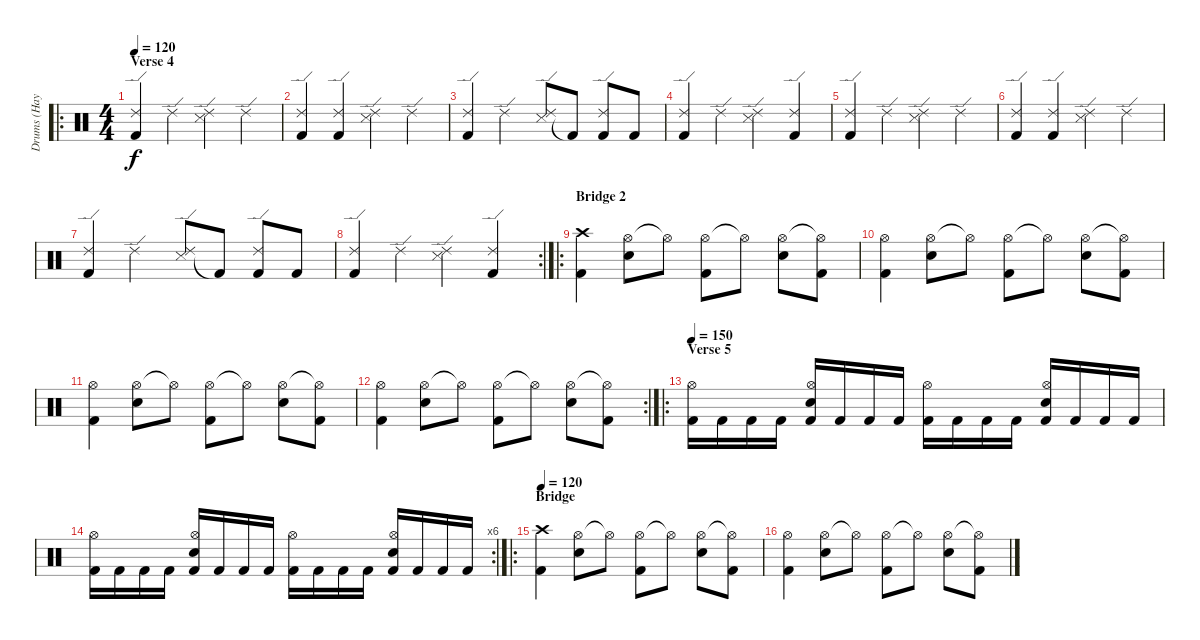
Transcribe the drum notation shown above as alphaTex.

\track ("Drums (Hayden)" "Drums (Hay") {instrument percussion}
\staff {score}
\articulation defaults
\ro
\ts (4 4)
\section ("" "Verse 4")
\tempo 120
\clef neutral
\ks c
("Ride (edge) 2" "Kick (hit) 2").4{dy f} "Ride (edge) 2".4 ("Ride (edge) 2" "Snare (side stick) 3").4 "Ride (edge) 2".4 |
("Ride (edge) 2" "Kick (hit) 2").4 ("Ride (edge) 2" "Kick (hit) 2").4 ("Ride (edge) 2" "Snare (side stick) 3").4 "Ride (edge) 2".4 |
("Ride (edge) 2" "Kick (hit) 2").4 "Ride (edge) 2".4 ("Ride (edge) 2" "Snare (side stick) 3").8 "Kick (hit) 2"{t}.8 ("Ride (edge) 2" "Kick (hit) 2").8 "Kick (hit) 2".8 |
("Ride (edge) 2" "Kick (hit) 2").4 "Ride (edge) 2".4 ("Ride (edge) 2" "Snare (side stick) 3").4 ("Ride (edge) 2" "Kick (hit) 2").4 |
("Ride (edge) 2" "Kick (hit) 2").4 "Ride (edge) 2".4 ("Ride (edge) 2" "Snare (side stick) 3").4 "Ride (edge) 2".4 |
("Ride (edge) 2" "Kick (hit) 2").4 ("Ride (edge) 2" "Kick (hit) 2").4 ("Ride (edge) 2" "Snare (side stick) 3").4 "Ride (edge) 2".4 |
("Ride (edge) 2" "Kick (hit) 2").4 "Ride (edge) 2".4 ("Ride (edge) 2" "Snare (side stick) 3").8 "Kick (hit) 2"{t}.8 ("Ride (edge) 2" "Kick (hit) 2").8 "Kick (hit) 2".8 |
\rc 2
("Ride (edge) 2" "Kick (hit) 2").4 "Ride (edge) 2".4 ("Ride (edge) 2" "Snare (side stick) 3").4 ("Ride (edge) 2" "Kick (hit) 2").4 |
\ro
\section ("" "Bridge 2")
("Crash high (hit)" "Kick (hit) 2").4 ("Hi-Hat (open)" "Electric Snare (hit)").8 "Hi-Hat (open)"{t}.8 ("Hi-Hat (open)" "Kick (hit) 2").8 "Hi-Hat (open)"{t}.8 ("Hi-Hat (open)" "Electric Snare (hit)").8 ("Hi-Hat (open)"{t} "Kick (hit) 2").8 |
("Hi-Hat (open)" "Kick (hit) 2").4 ("Hi-Hat (open)" "Electric Snare (hit)").8 "Hi-Hat (open)"{t}.8 ("Hi-Hat (open)" "Kick (hit) 2").8 "Hi-Hat (open)"{t}.8 ("Hi-Hat (open)" "Electric Snare (hit)").8 ("Hi-Hat (open)"{t} "Kick (hit) 2").8 |
("Hi-Hat (open)" "Kick (hit) 2").4 ("Hi-Hat (open)" "Electric Snare (hit)").8 "Hi-Hat (open)"{t}.8 ("Hi-Hat (open)" "Kick (hit) 2").8 "Hi-Hat (open)"{t}.8 ("Hi-Hat (open)" "Electric Snare (hit)").8 ("Hi-Hat (open)"{t} "Kick (hit) 2").8 |
\rc 2
("Hi-Hat (open)" "Kick (hit) 2").4 ("Hi-Hat (open)" "Electric Snare (hit)").8 "Hi-Hat (open)"{t}.8 ("Hi-Hat (open)" "Kick (hit) 2").8 "Hi-Hat (open)"{t}.8 ("Hi-Hat (open)" "Electric Snare (hit)").8 ("Hi-Hat (open)"{t} "Kick (hit) 2").8 |
\ro
\section ("" "Verse 5")
\tempo 150
("Kick (hit) 2" "Hi-Hat (open)").16 "Kick (hit) 2".16 "Kick (hit) 2".16 "Kick (hit) 2".16 ("Kick (hit) 2" "Hi-Hat (open)" "Electric Snare (hit)").16 "Kick (hit) 2".16 "Kick (hit) 2".16 "Kick (hit) 2".16 ("Kick (hit) 2" "Hi-Hat (open)").16 "Kick (hit) 2".16 "Kick (hit) 2".16 "Kick (hit) 2".16 ("Kick (hit) 2" "Hi-Hat (open)" "Electric Snare (hit)").16 "Kick (hit) 2".16 "Kick (hit) 2".16 "Kick (hit) 2".16 |
\rc 6
("Kick (hit) 2" "Hi-Hat (open)").16 "Kick (hit) 2".16 "Kick (hit) 2".16 "Kick (hit) 2".16 ("Kick (hit) 2" "Hi-Hat (open)" "Electric Snare (hit)").16 "Kick (hit) 2".16 "Kick (hit) 2".16 "Kick (hit) 2".16 ("Kick (hit) 2" "Hi-Hat (open)").16 "Kick (hit) 2".16 "Kick (hit) 2".16 "Kick (hit) 2".16 ("Kick (hit) 2" "Hi-Hat (open)" "Electric Snare (hit)").16 "Kick (hit) 2".16 "Kick (hit) 2".16 "Kick (hit) 2".16 |
\ro
\section ("" "Bridge")
\tempo 120
("Crash high (hit)" "Kick (hit) 2").4 ("Hi-Hat (open)" "Electric Snare (hit)").8 "Hi-Hat (open)"{t}.8 ("Hi-Hat (open)" "Kick (hit) 2").8 "Hi-Hat (open)"{t}.8 ("Hi-Hat (open)" "Electric Snare (hit)").8 ("Hi-Hat (open)"{t} "Kick (hit) 2").8 |
("Hi-Hat (open)" "Kick (hit) 2").4 ("Hi-Hat (open)" "Electric Snare (hit)").8 "Hi-Hat (open)"{t}.8 ("Hi-Hat (open)" "Kick (hit) 2").8 "Hi-Hat (open)"{t}.8 ("Hi-Hat (open)" "Electric Snare (hit)").8 ("Hi-Hat (open)"{t} "Kick (hit) 2").8
